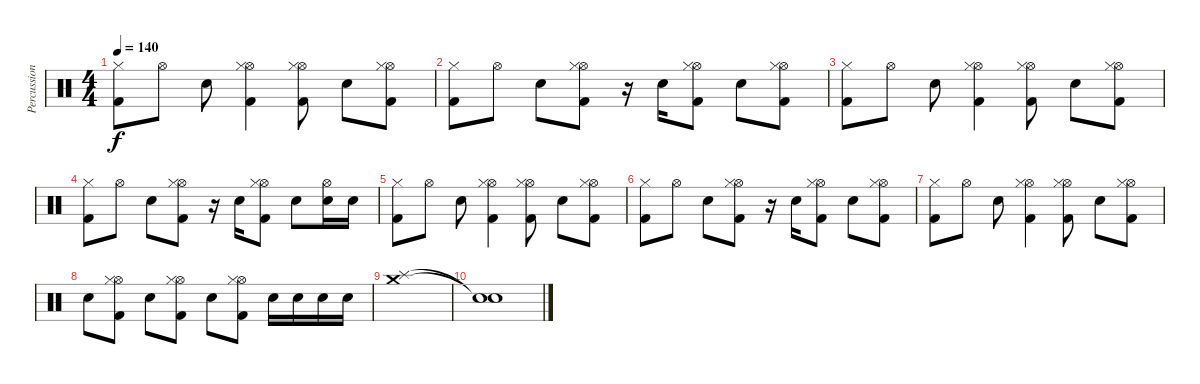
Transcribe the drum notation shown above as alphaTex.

\track ("Percussion" "Percussion") {instrument percussion}
\staff {score}
\articulation defaults
\ts (4 4)
\tempo 140
\clef neutral
\ks c
("Kick (hit) 2" "Hi-Hat (closed)").8{dy f} "Hi-Hat (open)".8 "Snare (hit) 2".8 ("Kick (hit) 2" "Hi-Hat (open)" "Hi-Hat (closed)").4 ("Kick (hit) 2" "Hi-Hat (open)" "Hi-Hat (closed)").8 "Snare (hit) 2".8 ("Kick (hit) 2" "Hi-Hat (open)" "Hi-Hat (closed)").8 |
("Kick (hit) 2" "Hi-Hat (closed)").8 "Hi-Hat (open)".8 "Snare (hit) 2".8 ("Kick (hit) 2" "Hi-Hat (open)" "Hi-Hat (closed)").8 r.16 "Snare (hit) 2".16 ("Kick (hit) 2" "Hi-Hat (open)" "Hi-Hat (closed)").8 "Snare (hit) 2".8 ("Kick (hit) 2" "Hi-Hat (open)" "Hi-Hat (closed)").8 |
("Kick (hit) 2" "Hi-Hat (closed)").8 "Hi-Hat (open)".8 "Snare (hit) 2".8 ("Kick (hit) 2" "Hi-Hat (open)" "Hi-Hat (closed)").4 ("Kick (hit) 2" "Hi-Hat (open)" "Hi-Hat (closed)").8 "Snare (hit) 2".8 ("Kick (hit) 2" "Hi-Hat (open)" "Hi-Hat (closed)").8 |
("Kick (hit) 2" "Hi-Hat (closed)").8 "Hi-Hat (open)".8 "Snare (hit) 2".8 ("Kick (hit) 2" "Hi-Hat (open)" "Hi-Hat (closed)").8 r.16 "Snare (hit) 2".16 ("Kick (hit) 2" "Hi-Hat (open)" "Hi-Hat (closed)").8 "Snare (hit) 2".8 ("Snare (hit) 2" "Hi-Hat (open)").16 "Snare (hit) 2".16 |
("Kick (hit) 2" "Hi-Hat (closed)").8 "Hi-Hat (open)".8 "Snare (hit) 2".8 ("Kick (hit) 2" "Hi-Hat (open)" "Hi-Hat (closed)").4 ("Kick (hit) 2" "Hi-Hat (open)" "Hi-Hat (closed)").8 "Snare (hit) 2".8 ("Kick (hit) 2" "Hi-Hat (open)" "Hi-Hat (closed)").8 |
("Kick (hit) 2" "Hi-Hat (closed)").8 "Hi-Hat (open)".8 "Snare (hit) 2".8 ("Kick (hit) 2" "Hi-Hat (open)" "Hi-Hat (closed)").8 r.16 "Snare (hit) 2".16 ("Kick (hit) 2" "Hi-Hat (open)" "Hi-Hat (closed)").8 "Snare (hit) 2".8 ("Kick (hit) 2" "Hi-Hat (open)" "Hi-Hat (closed)").8 |
("Kick (hit) 2" "Hi-Hat (closed)").8 "Hi-Hat (open)".8 "Snare (hit) 2".8 ("Kick (hit) 2" "Hi-Hat (open)" "Hi-Hat (closed)").4 ("Kick (hit) 2" "Hi-Hat (open)" "Hi-Hat (closed)").8 "Snare (hit) 2".8 ("Kick (hit) 2" "Hi-Hat (open)" "Hi-Hat (closed)").8 |
"Snare (hit) 2".8 ("Kick (hit) 2" "Hi-Hat (open)" "Hi-Hat (closed)").8 "Snare (hit) 2".8 ("Kick (hit) 2" "Hi-Hat (open)" "Hi-Hat (closed)").8 "Snare (hit) 2".8 ("Kick (hit) 2" "Hi-Hat (open)" "Hi-Hat (closed)").8 "Snare (hit) 2".16 "Snare (hit) 2".16 "Snare (hit) 2".16 "Snare (hit) 2".16 |
("Splash (hit)" "Crash medium (hit)").1 |
("Snare (hit)"{t} "Snare (hit)"{t}).1
